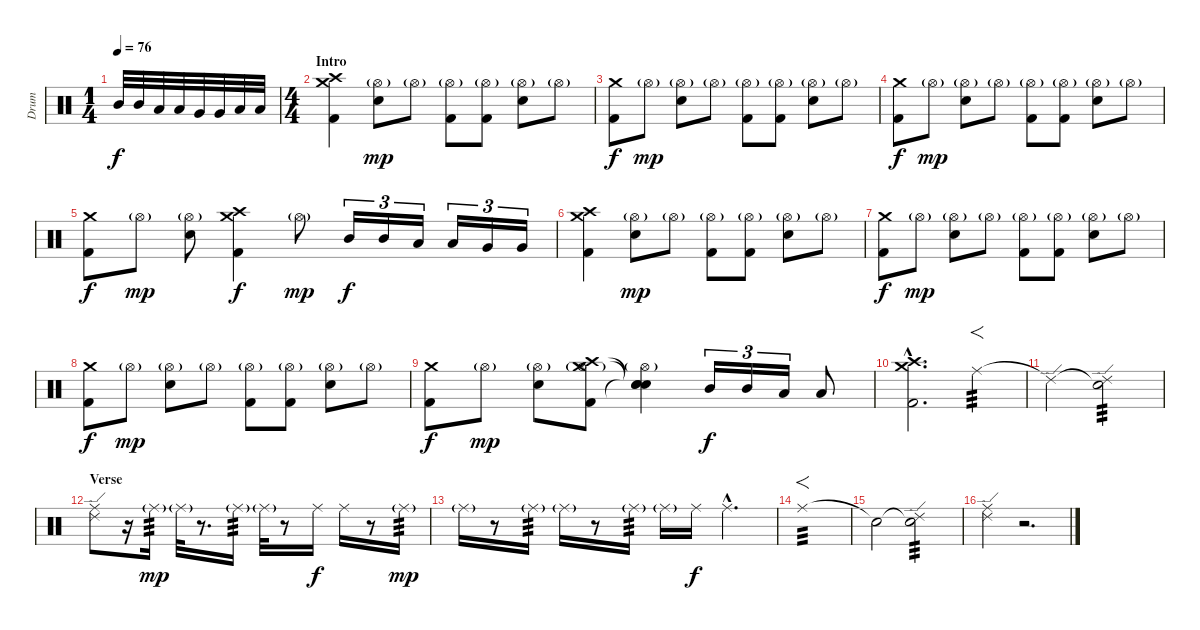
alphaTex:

\track ("Drum" "Drum") {instrument percussion}
\staff {score}
\articulation defaults
\ts (1 4)
\tempo 76
\clef neutral
\ks c "Mid Tom (hit)".32{dy f} "Mid Tom (hit)".32 "Low Tom (hit)".32 "Low Tom (hit)".32 "Very Low Tom (hit)".32 "Very Low Tom (hit)".32 "Low Floor Tom (hit)".32 "Low Floor Tom (hit)".32
|
\ts (4 4)
\section ("" "Intro")
("Kick (hit) 2" "Crash medium (hit)" "Crash high (hit)").4 ("Hi-Hat (open)"{g} "Electric Snare (hit)").8{dy mp} "Hi-Hat (open)"{g}.8 ("Hi-Hat (open)"{g} "Kick (hit) 2").8 ("Hi-Hat (open)"{g} "Kick (hit) 2").8 ("Hi-Hat (open)"{g} "Electric Snare (hit)").8 "Hi-Hat (open)"{g}.8 |
("Kick (hit) 2" "Crash medium (hit)").8{dy f} "Hi-Hat (open)"{g}.8{dy mp} ("Hi-Hat (open)"{g} "Electric Snare (hit)").8 "Hi-Hat (open)"{g}.8 ("Hi-Hat (open)"{g} "Kick (hit) 2").8 ("Hi-Hat (open)"{g} "Kick (hit) 2").8 ("Hi-Hat (open)"{g} "Electric Snare (hit)").8 "Hi-Hat (open)"{g}.8 |
("Kick (hit) 2" "Crash medium (hit)").8{dy f} "Hi-Hat (open)"{g}.8{dy mp} ("Hi-Hat (open)"{g} "Electric Snare (hit)").8 "Hi-Hat (open)"{g}.8 ("Hi-Hat (open)"{g} "Kick (hit) 2").8 ("Hi-Hat (open)"{g} "Kick (hit) 2").8 ("Hi-Hat (open)"{g} "Electric Snare (hit)").8 "Hi-Hat (open)"{g}.8 |
("Kick (hit) 2" "Crash medium (hit)").8{dy f} "Hi-Hat (open)"{g}.8{dy mp} ("Hi-Hat (open)"{g} "Electric Snare (hit)").8 ("Kick (hit) 2" "Crash medium (hit)" "Crash high (hit)").4{dy f} "Hi-Hat (open)"{g}.8{dy mp} "Mid Tom (hit)".16{tu (3 2) dy f} "Mid Tom (hit)".16{tu (3 2)} "Low Tom (hit)".16{tu (3 2)} "Low Tom (hit)".16{tu (3 2)} "Very Low Tom (hit)".16{tu (3 2)} "Very Low Tom (hit)".16{tu (3 2)} |
("Kick (hit) 2" "Crash medium (hit)" "Crash high (hit)").4 ("Hi-Hat (open)"{g} "Electric Snare (hit)").8{dy mp} "Hi-Hat (open)"{g}.8 ("Hi-Hat (open)"{g} "Kick (hit) 2").8 ("Hi-Hat (open)"{g} "Kick (hit) 2").8 ("Hi-Hat (open)"{g} "Electric Snare (hit)").8 "Hi-Hat (open)"{g}.8 |
("Kick (hit) 2" "Crash medium (hit)").8{dy f} "Hi-Hat (open)"{g}.8{dy mp} ("Hi-Hat (open)"{g} "Electric Snare (hit)").8 "Hi-Hat (open)"{g}.8 ("Hi-Hat (open)"{g} "Kick (hit) 2").8 ("Hi-Hat (open)"{g} "Kick (hit) 2").8 ("Hi-Hat (open)"{g} "Electric Snare (hit)").8 "Hi-Hat (open)"{g}.8 |
("Kick (hit) 2" "Crash medium (hit)").8{dy f} "Hi-Hat (open)"{g}.8{dy mp} ("Hi-Hat (open)"{g} "Electric Snare (hit)").8 "Hi-Hat (open)"{g}.8 ("Hi-Hat (open)"{g} "Kick (hit) 2").8 ("Hi-Hat (open)"{g} "Kick (hit) 2").8 ("Hi-Hat (open)"{g} "Electric Snare (hit)").8 "Hi-Hat (open)"{g}.8 |
("Kick (hit) 2" "Crash medium (hit)").8{dy f} "Hi-Hat (open)"{g}.8{dy mp} ("Hi-Hat (open)"{g} "Electric Snare (hit)").8 ("Hi-Hat (open)"{g} "Kick (hit) 2" "Crash medium (hit)" "Crash high (hit)").8 ("Hi-Hat (open)"{g} "Snare (hit)"{t} "Snare (hit)"{t} "Snare (hit)"{t}).4 "Mid Tom (hit)".16{tu (3 2) dy f} "Mid Tom (hit)".16{tu (3 2)} "Low Tom (hit)".16{tu (3 2)} "Low Tom (hit)".8 |
("Kick (hit) 2"{hac} "Crash medium (hit)"{hac} "Crash high (hit)"{hac}).2{d} "Ride (middle)".4{f tp 3} |
"Ride (edge) 2"{t}.2 ("Snare (hit)"{t} "Ride (edge) 2").2{tp 3} |
\section ("" "Verse")
("Ride (middle)" "Ride (edge) 2").8 r.16 "Ride (middle)"{g}.16{tp 3 dy mp} "Ride (middle)"{g}.32 r.8{d} "Ride (middle)"{g}.16{tp 3} "Ride (middle)"{g}.32 r.8 "Ride (middle)".16{dy f} "Ride (middle)".16 r.8 "Ride (middle)"{g}.16{tp 3 dy mp} |
"Ride (middle)"{g}.16 r.8 "Ride (middle)"{g}.16{tp 3} "Ride (middle)"{g}.16 r.8 "Ride (middle)"{g}.16{tp 3} "Ride (middle)"{g}.16 "Ride (middle)".16{dy f} "Ride (middle)"{hac}.4{d} |
"Ride (middle)".1{f tp 3} |
"Snare (hit)"{t}.2 ("Snare (hit)"{t} "Ride (edge) 2").2{tp 3} |
("Ride (middle)" "Ride (edge) 2").4 r.2{d}
